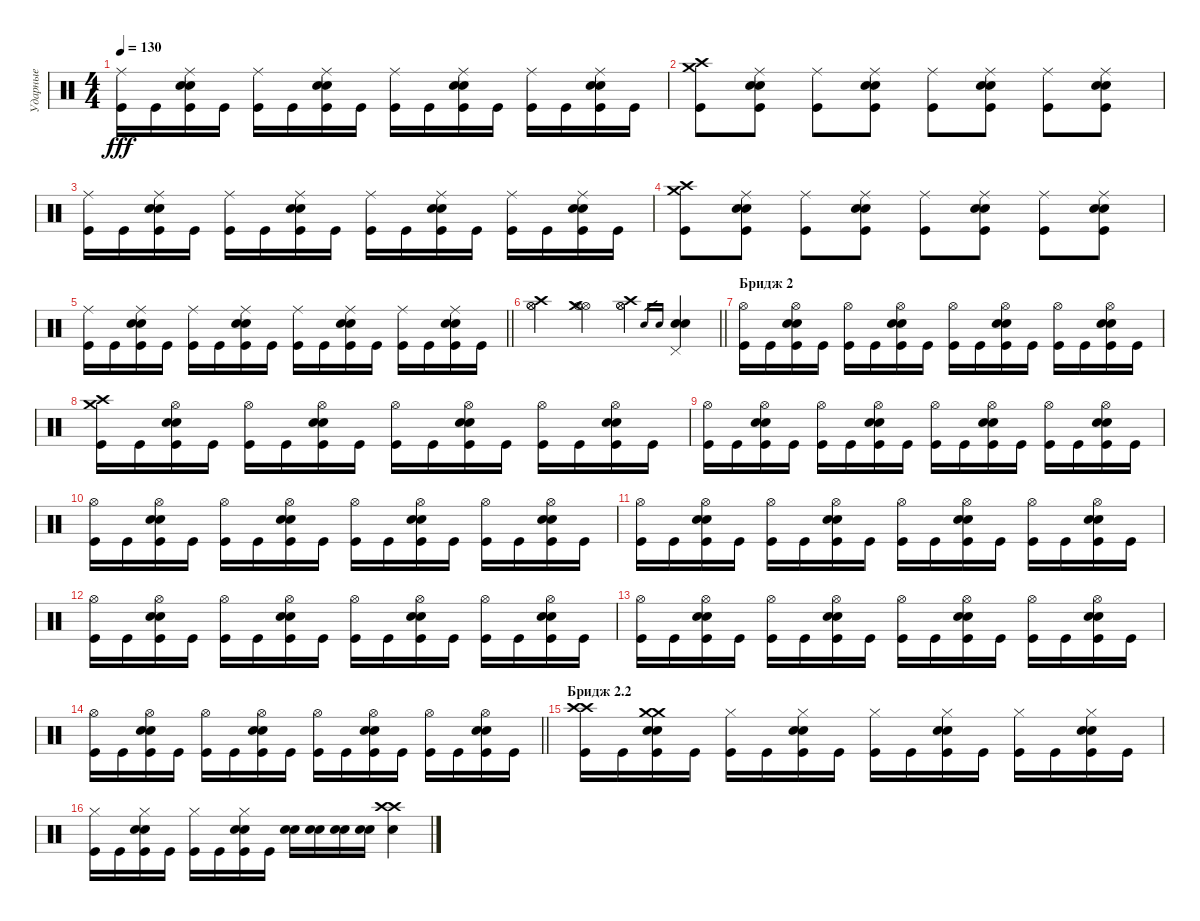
\track ("Ударные" "Ударные") {instrument percussion}
\staff {score}
\articulation defaults
\ts (4 4)
\tempo 130
\clef neutral
\ks c
("Kick (hit)" "Ride (middle)").16{dy fff} "Kick (hit)".16 ("Kick (hit)" "Snare (hit) 2" "Snare (hit) 2" "Ride (middle)").16 "Kick (hit)".16 ("Kick (hit)" "Ride (middle)").16 "Kick (hit)".16 ("Kick (hit)" "Snare (hit) 2" "Snare (hit) 2" "Ride (middle)").16 "Kick (hit)".16 ("Kick (hit)" "Ride (middle)").16 "Kick (hit)".16 ("Kick (hit)" "Snare (hit) 2" "Snare (hit) 2" "Ride (middle)").16 "Kick (hit)".16 ("Kick (hit)" "Ride (middle)").16 "Kick (hit)".16 ("Kick (hit)" "Snare (hit) 2" "Snare (hit) 2" "Ride (middle)").16 "Kick (hit)".16 |
("Kick (hit)" "Crash medium (hit)" "Crash high (hit)").8 ("Kick (hit)" "Snare (hit) 2" "Snare (hit) 2" "Ride (middle)").8 ("Kick (hit)" "Ride (middle)").8 ("Kick (hit)" "Snare (hit) 2" "Snare (hit) 2" "Ride (middle)").8 ("Kick (hit)" "Ride (middle)").8 ("Kick (hit)" "Snare (hit) 2" "Snare (hit) 2" "Ride (middle)").8 ("Kick (hit)" "Ride (middle)").8 ("Kick (hit)" "Snare (hit) 2" "Snare (hit) 2" "Ride (middle)").8 |
("Kick (hit)" "Ride (middle)").16 "Kick (hit)".16 ("Kick (hit)" "Snare (hit) 2" "Snare (hit) 2" "Ride (middle)").16 "Kick (hit)".16 ("Kick (hit)" "Ride (middle)").16 "Kick (hit)".16 ("Kick (hit)" "Snare (hit) 2" "Snare (hit) 2" "Ride (middle)").16 "Kick (hit)".16 ("Kick (hit)" "Ride (middle)").16 "Kick (hit)".16 ("Kick (hit)" "Snare (hit) 2" "Snare (hit) 2" "Ride (middle)").16 "Kick (hit)".16 ("Kick (hit)" "Ride (middle)").16 "Kick (hit)".16 ("Kick (hit)" "Snare (hit) 2" "Snare (hit) 2" "Ride (middle)").16 "Kick (hit)".16 |
("Kick (hit)" "Crash medium (hit)" "Crash high (hit)").8 ("Kick (hit)" "Snare (hit) 2" "Snare (hit) 2" "Ride (middle)").8 ("Kick (hit)" "Ride (middle)").8 ("Kick (hit)" "Snare (hit) 2" "Snare (hit) 2" "Ride (middle)").8 ("Kick (hit)" "Ride (middle)").8 ("Kick (hit)" "Snare (hit) 2" "Snare (hit) 2" "Ride (middle)").8 ("Kick (hit)" "Ride (middle)").8 ("Kick (hit)" "Snare (hit) 2" "Snare (hit) 2" "Ride (middle)").8 |
\barLineRight lightlight
("Kick (hit)" "Ride (middle)").16 "Kick (hit)".16 ("Kick (hit)" "Snare (hit) 2" "Snare (hit) 2" "Ride (middle)").16 "Kick (hit)".16 ("Kick (hit)" "Ride (middle)").16 "Kick (hit)".16 ("Kick (hit)" "Snare (hit) 2" "Snare (hit) 2" "Ride (middle)").16 "Kick (hit)".16 ("Kick (hit)" "Ride (middle)").16 "Kick (hit)".16 ("Kick (hit)" "Snare (hit) 2" "Snare (hit) 2" "Ride (middle)").16 "Kick (hit)".16 ("Kick (hit)" "Ride (middle)").16 "Kick (hit)".16 ("Kick (hit)" "Snare (hit) 2" "Snare (hit) 2" "Ride (middle)").16 "Kick (hit)".16 |
\barLineRight lightlight
("Hi-Hat (open)" "Hi-Hat (open)" "Crash high (hit)").4 ("Hi-Hat (open)" "Hi-Hat (open)" "Crash medium (hit)").4 ("Hi-Hat (open)" "Hi-Hat (open)" "Crash high (hit)").4 "Electric Snare (hit)".16{gr} "Snare (hit) 2".16{gr} ("Electric Snare (hit)" "Snare (hit) 2" "Pedal Hi-Hat (hit)").4 |
\section ("" "Бридж 2")
("Kick (hit)" "Hi-Hat (open)").16 "Kick (hit)".16 ("Kick (hit)" "Snare (hit) 2" "Electric Snare (hit)" "Hi-Hat (open)").16 "Kick (hit)".16 ("Kick (hit)" "Hi-Hat (open)").16 "Kick (hit)".16 ("Kick (hit)" "Snare (hit) 2" "Electric Snare (hit)" "Hi-Hat (open)").16 "Kick (hit)".16 ("Kick (hit)" "Hi-Hat (open)").16 "Kick (hit)".16 ("Kick (hit)" "Snare (hit) 2" "Electric Snare (hit)" "Hi-Hat (open)").16 "Kick (hit)".16 ("Kick (hit)" "Hi-Hat (open)").16 "Kick (hit)".16 ("Kick (hit)" "Snare (hit) 2" "Electric Snare (hit)" "Hi-Hat (open)").16 "Kick (hit)".16 |
("Kick (hit)" "Crash medium (hit)" "Crash high (hit)").16 "Kick (hit)".16 ("Kick (hit)" "Snare (hit) 2" "Electric Snare (hit)" "Hi-Hat (open)").16 "Kick (hit)".16 ("Kick (hit)" "Hi-Hat (open)").16 "Kick (hit)".16 ("Kick (hit)" "Snare (hit) 2" "Electric Snare (hit)" "Hi-Hat (open)").16 "Kick (hit)".16 ("Kick (hit)" "Hi-Hat (open)").16 "Kick (hit)".16 ("Kick (hit)" "Snare (hit) 2" "Electric Snare (hit)" "Hi-Hat (open)").16 "Kick (hit)".16 ("Kick (hit)" "Hi-Hat (open)").16 "Kick (hit)".16 ("Kick (hit)" "Snare (hit) 2" "Electric Snare (hit)" "Hi-Hat (open)").16 "Kick (hit)".16 |
("Kick (hit)" "Hi-Hat (open)").16 "Kick (hit)".16 ("Kick (hit)" "Snare (hit) 2" "Electric Snare (hit)" "Hi-Hat (open)").16 "Kick (hit)".16 ("Kick (hit)" "Hi-Hat (open)").16 "Kick (hit)".16 ("Kick (hit)" "Snare (hit) 2" "Electric Snare (hit)" "Hi-Hat (open)").16 "Kick (hit)".16 ("Kick (hit)" "Hi-Hat (open)").16 "Kick (hit)".16 ("Kick (hit)" "Snare (hit) 2" "Electric Snare (hit)" "Hi-Hat (open)").16 "Kick (hit)".16 ("Kick (hit)" "Hi-Hat (open)").16 "Kick (hit)".16 ("Kick (hit)" "Snare (hit) 2" "Electric Snare (hit)" "Hi-Hat (open)").16 "Kick (hit)".16 |
("Kick (hit)" "Hi-Hat (open)").16 "Kick (hit)".16 ("Kick (hit)" "Snare (hit) 2" "Electric Snare (hit)" "Hi-Hat (open)").16 "Kick (hit)".16 ("Kick (hit)" "Hi-Hat (open)").16 "Kick (hit)".16 ("Kick (hit)" "Snare (hit) 2" "Electric Snare (hit)" "Hi-Hat (open)").16 "Kick (hit)".16 ("Kick (hit)" "Hi-Hat (open)").16 "Kick (hit)".16 ("Kick (hit)" "Snare (hit) 2" "Electric Snare (hit)" "Hi-Hat (open)").16 "Kick (hit)".16 ("Kick (hit)" "Hi-Hat (open)").16 "Kick (hit)".16 ("Kick (hit)" "Snare (hit) 2" "Electric Snare (hit)" "Hi-Hat (open)").16 "Kick (hit)".16 |
("Kick (hit)" "Hi-Hat (open)").16 "Kick (hit)".16 ("Kick (hit)" "Snare (hit) 2" "Electric Snare (hit)" "Hi-Hat (open)").16 "Kick (hit)".16 ("Kick (hit)" "Hi-Hat (open)").16 "Kick (hit)".16 ("Kick (hit)" "Snare (hit) 2" "Electric Snare (hit)" "Hi-Hat (open)").16 "Kick (hit)".16 ("Kick (hit)" "Hi-Hat (open)").16 "Kick (hit)".16 ("Kick (hit)" "Snare (hit) 2" "Electric Snare (hit)" "Hi-Hat (open)").16 "Kick (hit)".16 ("Kick (hit)" "Hi-Hat (open)").16 "Kick (hit)".16 ("Kick (hit)" "Snare (hit) 2" "Electric Snare (hit)" "Hi-Hat (open)").16 "Kick (hit)".16 |
("Kick (hit)" "Hi-Hat (open)").16 "Kick (hit)".16 ("Kick (hit)" "Snare (hit) 2" "Electric Snare (hit)" "Hi-Hat (open)").16 "Kick (hit)".16 ("Kick (hit)" "Hi-Hat (open)").16 "Kick (hit)".16 ("Kick (hit)" "Snare (hit) 2" "Electric Snare (hit)" "Hi-Hat (open)").16 "Kick (hit)".16 ("Kick (hit)" "Hi-Hat (open)").16 "Kick (hit)".16 ("Kick (hit)" "Snare (hit) 2" "Electric Snare (hit)" "Hi-Hat (open)").16 "Kick (hit)".16 ("Kick (hit)" "Hi-Hat (open)").16 "Kick (hit)".16 ("Kick (hit)" "Snare (hit) 2" "Electric Snare (hit)" "Hi-Hat (open)").16 "Kick (hit)".16 |
("Kick (hit)" "Hi-Hat (open)").16 "Kick (hit)".16 ("Kick (hit)" "Snare (hit) 2" "Electric Snare (hit)" "Hi-Hat (open)").16 "Kick (hit)".16 ("Kick (hit)" "Hi-Hat (open)").16 "Kick (hit)".16 ("Kick (hit)" "Snare (hit) 2" "Electric Snare (hit)" "Hi-Hat (open)").16 "Kick (hit)".16 ("Kick (hit)" "Hi-Hat (open)").16 "Kick (hit)".16 ("Kick (hit)" "Snare (hit) 2" "Electric Snare (hit)" "Hi-Hat (open)").16 "Kick (hit)".16 ("Kick (hit)" "Hi-Hat (open)").16 "Kick (hit)".16 ("Kick (hit)" "Snare (hit) 2" "Electric Snare (hit)" "Hi-Hat (open)").16 "Kick (hit)".16 |
\barLineRight lightlight
("Kick (hit)" "Hi-Hat (open)").16 "Kick (hit)".16 ("Kick (hit)" "Snare (hit) 2" "Electric Snare (hit)" "Hi-Hat (open)").16 "Kick (hit)".16 ("Kick (hit)" "Hi-Hat (open)").16 "Kick (hit)".16 ("Kick (hit)" "Snare (hit) 2" "Electric Snare (hit)" "Hi-Hat (open)").16 "Kick (hit)".16 ("Kick (hit)" "Hi-Hat (open)").16 "Kick (hit)".16 ("Kick (hit)" "Snare (hit) 2" "Electric Snare (hit)" "Hi-Hat (open)").16 "Kick (hit)".16 ("Kick (hit)" "Hi-Hat (open)").16 "Kick (hit)".16 ("Kick (hit)" "Snare (hit) 2" "Electric Snare (hit)" "Hi-Hat (open)").16 "Kick (hit)".16 |
\section ("" "Бридж 2.2")
("Crash high (hit)" "Crash high (hit)" "Kick (hit)").16 "Kick (hit)".16 ("Snare (hit) 2" "Snare (hit) 2" "Crash medium (hit)" "Crash medium (hit)" "Kick (hit)").16 "Kick (hit)".16 ("Hi-Hat (closed)" "Kick (hit)").16 "Kick (hit)".16 ("Hi-Hat (closed)" "Snare (hit) 2" "Snare (hit) 2" "Kick (hit)").16 "Kick (hit)".16 ("Hi-Hat (closed)" "Kick (hit)").16 "Kick (hit)".16 ("Hi-Hat (closed)" "Snare (hit) 2" "Snare (hit) 2" "Kick (hit)").16 "Kick (hit)".16 ("Hi-Hat (closed)" "Kick (hit)").16 "Kick (hit)".16 ("Hi-Hat (closed)" "Snare (hit) 2" "Snare (hit) 2" "Kick (hit)").16 "Kick (hit)".16 |
("Hi-Hat (closed)" "Kick (hit)").16 "Kick (hit)".16 ("Hi-Hat (closed)" "Snare (hit) 2" "Snare (hit) 2" "Kick (hit)").16 "Kick (hit)".16 ("Hi-Hat (closed)" "Kick (hit)").16 "Kick (hit)".16 ("Hi-Hat (closed)" "Snare (hit) 2" "Snare (hit) 2" "Kick (hit)").16 "Kick (hit)".16 ("Snare (hit) 2" "Electric Snare (hit)").16 ("Snare (hit) 2" "Electric Snare (hit)").16 ("Snare (hit) 2" "Electric Snare (hit)").16 ("Snare (hit) 2" "Electric Snare (hit)").16 ("Crash high (hit)" "Crash high (hit)" "Electric Snare (hit)").4
